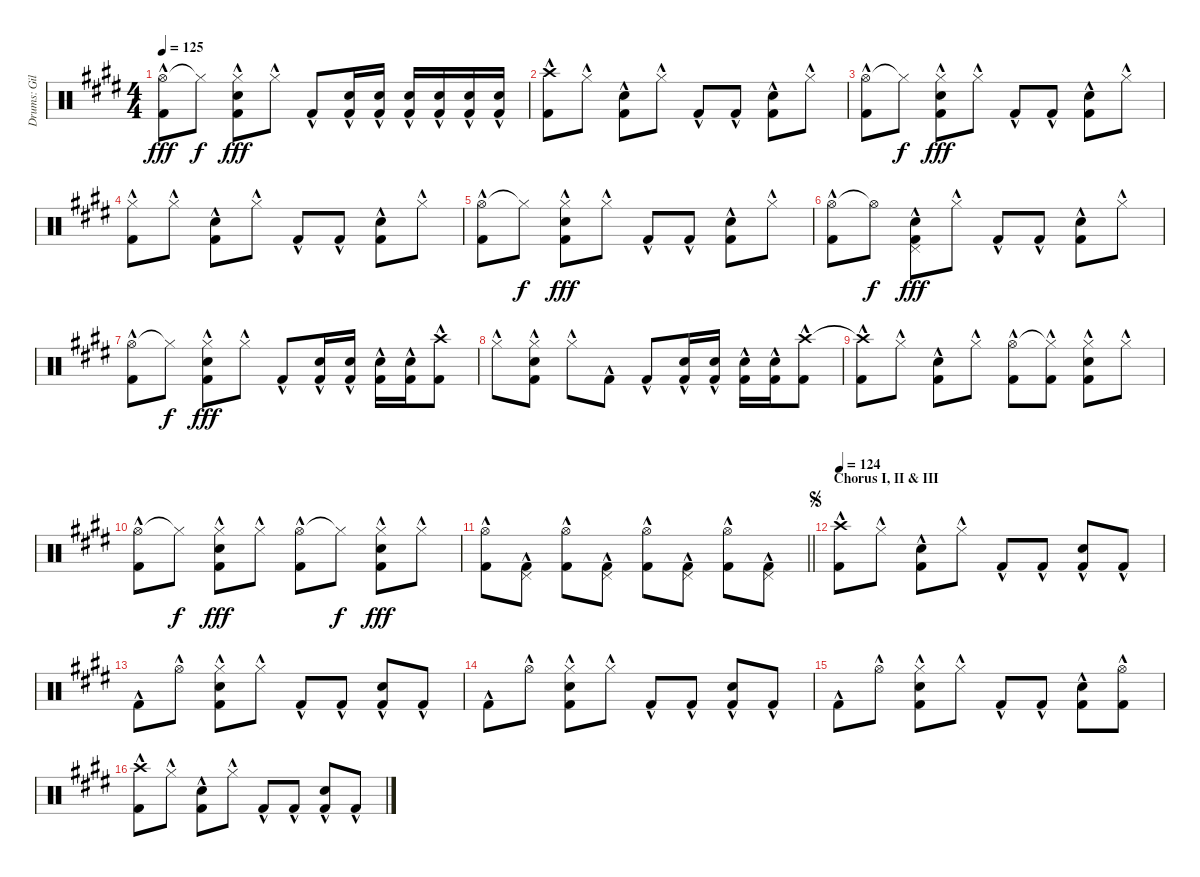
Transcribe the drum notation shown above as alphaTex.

\track ("Drums: Gil" "Drums: Gil") {instrument percussion}
\staff {score}
\articulation defaults
\ts (4 4)
\tempo 125
\clef neutral
\ks e
("Hi-Hat (open)"{hac} "Kick (hit) 2"{hac}).8{dy fff} "Hi-Hat (closed)"{t}.8{dy f} ("Hi-Hat (closed)"{hac} "Snare (hit) 2"{hac} "Kick (hit) 2"{hac}).8{dy fff} "Hi-Hat (closed)"{hac}.8 "Kick (hit) 2"{hac}.8 ("Snare (hit) 2"{hac} "Kick (hit) 2"{hac}).16 ("Snare (hit) 2"{hac} "Kick (hit) 2"{hac}).16 ("Snare (hit) 2"{hac} "Kick (hit) 2"{hac}).16 ("Snare (hit) 2"{hac} "Kick (hit) 2"{hac}).16 ("Snare (hit) 2"{hac} "Kick (hit) 2"{hac}).16 ("Snare (hit) 2"{hac} "Kick (hit) 2"{hac}).16 |
("Crash high (hit)"{hac} "Kick (hit) 2"{hac}).8 "Hi-Hat (closed)"{hac}.8 ("Snare (hit) 2"{hac} "Kick (hit) 2"{hac}).8 "Hi-Hat (closed)"{hac}.8 "Kick (hit) 2"{hac}.8 "Kick (hit) 2"{hac}.8 ("Snare (hit) 2"{hac} "Kick (hit) 2"{hac}).8 "Hi-Hat (closed)"{hac}.8 |
("Hi-Hat (open)"{hac} "Kick (hit) 2"{hac}).8 "Hi-Hat (closed)"{t}.8{dy f} ("Hi-Hat (closed)"{hac} "Snare (hit) 2"{hac} "Kick (hit) 2"{hac}).8{dy fff} "Hi-Hat (closed)"{hac}.8 "Kick (hit) 2"{hac}.8 "Kick (hit) 2"{hac}.8 ("Snare (hit) 2"{hac} "Kick (hit) 2"{hac}).8 "Hi-Hat (closed)"{hac}.8 |
("Hi-Hat (closed)"{hac} "Kick (hit) 2"{hac}).8 "Hi-Hat (closed)"{hac}.8 ("Snare (hit) 2"{hac} "Kick (hit) 2"{hac}).8 "Hi-Hat (closed)"{hac}.8 "Kick (hit) 2"{hac}.8 "Kick (hit) 2"{hac}.8 ("Snare (hit) 2"{hac} "Kick (hit) 2"{hac}).8 "Hi-Hat (closed)"{hac}.8 |
("Hi-Hat (open)"{hac} "Kick (hit) 2"{hac}).8 "Hi-Hat (closed)"{t}.8{dy f} ("Hi-Hat (closed)"{hac} "Snare (hit) 2"{hac} "Kick (hit) 2"{hac}).8{dy fff} "Hi-Hat (closed)"{hac}.8 "Kick (hit) 2"{hac}.8 "Kick (hit) 2"{hac}.8 ("Snare (hit) 2"{hac} "Kick (hit) 2"{hac}).8 "Hi-Hat (closed)"{hac}.8 |
("Hi-Hat (open)"{hac} "Kick (hit) 2"{hac}).8 "Hi-Hat (open)"{t}.8{dy f} ("Pedal Hi-Hat (hit)"{hac} "Snare (hit) 2"{hac} "Kick (hit) 2"{hac}).8{dy fff} "Hi-Hat (closed)"{hac}.8 "Kick (hit) 2"{hac}.8 "Kick (hit) 2"{hac}.8 ("Snare (hit) 2"{hac} "Kick (hit) 2"{hac}).8 "Hi-Hat (closed)"{hac}.8 |
("Hi-Hat (open)"{hac} "Kick (hit) 2"{hac}).8 "Hi-Hat (closed)"{t}.8{dy f} ("Hi-Hat (closed)"{hac} "Snare (hit) 2"{hac} "Kick (hit) 2"{hac}).8{dy fff} "Hi-Hat (closed)"{hac}.8 "Kick (hit) 2"{hac}.8 ("Snare (hit) 2"{hac} "Kick (hit) 2"{hac}).16 ("Snare (hit) 2"{hac} "Kick (hit) 2"{hac}).16 ("Snare (hit) 2"{hac} "Kick (hit) 2"{hac}).16 ("Snare (hit) 2"{hac} "Kick (hit) 2"{hac}).16 ("Crash high (hit)"{hac} "Kick (hit) 2"{hac}).8 |
"Hi-Hat (closed)"{hac}.8 ("Hi-Hat (closed)"{hac} "Snare (hit) 2"{hac} "Kick (hit) 2"{hac}).8 "Hi-Hat (closed)"{hac}.8 "Kick (hit) 2"{hac}.8 "Kick (hit) 2"{hac}.8 ("Snare (hit) 2"{hac} "Kick (hit) 2"{hac}).16 ("Snare (hit) 2"{hac} "Kick (hit) 2"{hac}).16 ("Snare (hit) 2"{hac} "Kick (hit) 2"{hac}).16 ("Snare (hit) 2"{hac} "Kick (hit) 2"{hac}).16 ("Crash high (hit)"{hac} "Kick (hit) 2"{hac}).8 |
("Crash high (hit)"{t} "Kick (hit) 2"{hac}).8 "Hi-Hat (closed)"{hac}.8 ("Snare (hit) 2"{hac} "Kick (hit) 2"{hac}).8 "Hi-Hat (closed)"{hac}.8 ("Hi-Hat (open)"{hac} "Kick (hit) 2"{hac}).8 ("Hi-Hat (closed)"{t} "Kick (hit) 2"{hac}).8 ("Hi-Hat (closed)"{hac} "Snare (hit) 2"{hac} "Kick (hit) 2"{hac}).8 "Hi-Hat (closed)"{hac}.8 |
("Hi-Hat (open)"{hac} "Kick (hit) 2"{hac}).8 "Hi-Hat (closed)"{t}.8{dy f} ("Hi-Hat (closed)"{hac} "Snare (hit) 2"{hac} "Kick (hit) 2"{hac}).8{dy fff} "Hi-Hat (closed)"{hac}.8 ("Hi-Hat (open)"{hac} "Kick (hit) 2"{hac}).8 "Hi-Hat (closed)"{t}.8{dy f} ("Hi-Hat (closed)"{hac} "Snare (hit) 2"{hac} "Kick (hit) 2"{hac}).8{dy fff} "Hi-Hat (closed)"{hac}.8 |
\barLineRight lightlight
("Hi-Hat (open)"{hac} "Kick (hit) 2"{hac}).8 ("Pedal Hi-Hat (hit)"{hac} "Kick (hit) 2"{hac}).8 ("Hi-Hat (open)"{hac} "Kick (hit) 2"{hac}).8 ("Pedal Hi-Hat (hit)"{hac} "Kick (hit) 2"{hac}).8 ("Hi-Hat (open)"{hac} "Kick (hit) 2"{hac}).8 ("Pedal Hi-Hat (hit)"{hac} "Kick (hit) 2"{hac}).8 ("Hi-Hat (open)"{hac} "Kick (hit) 2"{hac}).8 ("Pedal Hi-Hat (hit)"{hac} "Kick (hit) 2"{hac}).8 |
\section ("" "Chorus I, II & III")
\jump segno
\tempo 124
("Crash high (hit)"{hac} "Kick (hit) 2"{hac}).8 "Hi-Hat (closed)"{hac}.8 ("Snare (hit) 2"{hac} "Kick (hit) 2"{hac}).8 "Hi-Hat (closed)"{hac}.8 "Kick (hit) 2"{hac}.8 "Kick (hit) 2"{hac}.8 ("Snare (hit) 2"{hac} "Kick (hit) 2"{hac}).8 "Kick (hit) 2"{hac}.8 |
"Kick (hit) 2"{hac}.8 "Hi-Hat (open)"{hac}.8 ("Hi-Hat (closed)"{hac} "Snare (hit) 2"{hac} "Kick (hit) 2"{hac}).8 "Hi-Hat (closed)"{hac}.8 "Kick (hit) 2"{hac}.8 "Kick (hit) 2"{hac}.8 ("Snare (hit) 2"{hac} "Kick (hit) 2"{hac}).8 "Kick (hit) 2"{hac}.8 |
"Kick (hit) 2"{hac}.8 "Hi-Hat (open)"{hac}.8 ("Hi-Hat (closed)"{hac} "Snare (hit) 2"{hac} "Kick (hit) 2"{hac}).8 "Hi-Hat (closed)"{hac}.8 "Kick (hit) 2"{hac}.8 "Kick (hit) 2"{hac}.8 ("Snare (hit) 2"{hac} "Kick (hit) 2"{hac}).8 "Kick (hit) 2"{hac}.8 |
"Kick (hit) 2"{hac}.8 "Hi-Hat (open)"{hac}.8 ("Hi-Hat (closed)"{hac} "Snare (hit) 2"{hac} "Kick (hit) 2"{hac}).8 "Hi-Hat (closed)"{hac}.8 "Kick (hit) 2"{hac}.8 "Kick (hit) 2"{hac}.8 ("Snare (hit) 2"{hac} "Kick (hit) 2"{hac}).8 ("Hi-Hat (open)"{hac} "Kick (hit) 2"{hac}).8 |
("Crash high (hit)"{hac} "Kick (hit) 2"{hac}).8 "Hi-Hat (closed)"{hac}.8 ("Snare (hit) 2"{hac} "Kick (hit) 2"{hac}).8 "Hi-Hat (closed)"{hac}.8 "Kick (hit) 2"{hac}.8 "Kick (hit) 2"{hac}.8 ("Snare (hit) 2"{hac} "Kick (hit) 2"{hac}).8 "Kick (hit) 2"{hac}.8
